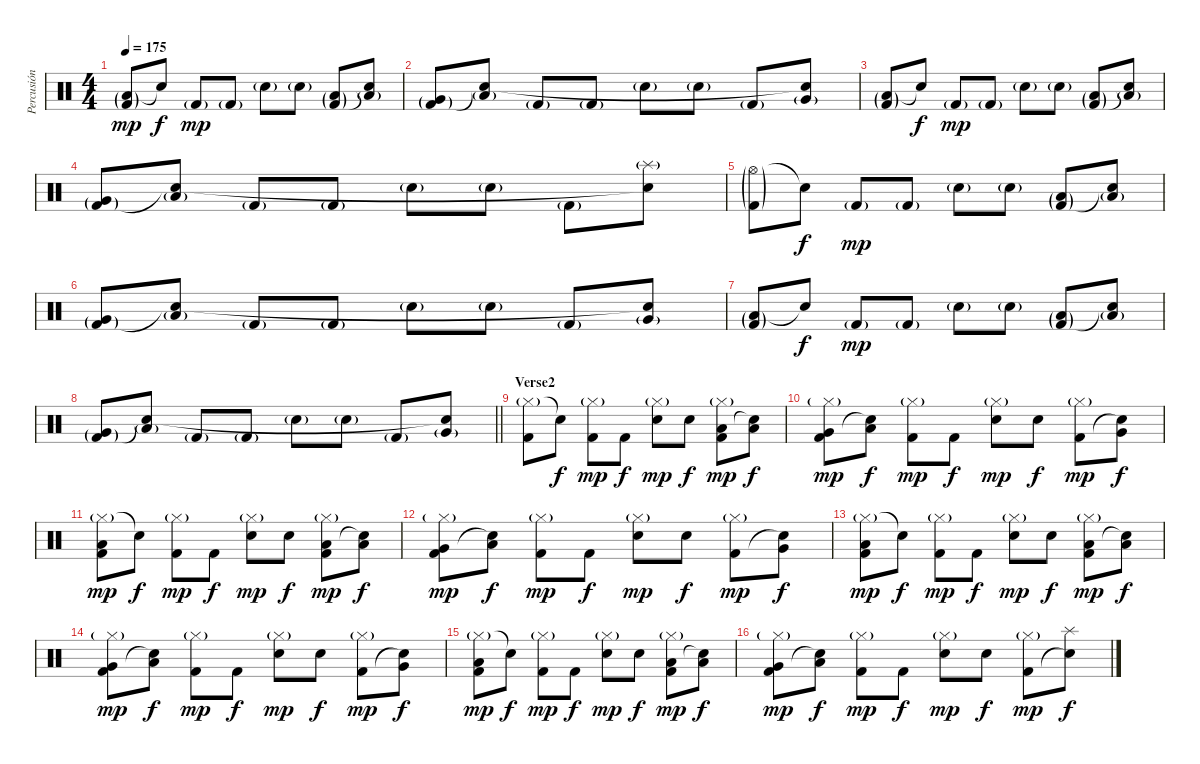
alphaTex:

\track ("Percusión" "Percusión") {instrument percussion}
\staff {score}
\articulation defaults
\ts (4 4)
\tempo 175
\clef neutral
\ks c
("Low Floor Tom (hit)"{g} "Kick (hit) 2"{g}).8{dy mp} "Snare (hit)"{t}.8{dy f} "Kick (hit) 2"{g}.8{dy mp} "Kick (hit) 2"{g}.8 "Electric Snare (hit)"{g}.8 "Electric Snare (hit)"{g}.8 ("Low Floor Tom (hit)"{g} "Kick (hit) 2"{g}).8 ("Low Floor Tom (hit)"{g} "Snare (hit)"{t}).8 |
("Very Low Tom (hit)"{g} "Kick (hit) 2"{g}).8 ("Low Floor Tom (hit)"{g} "Snare (hit)"{t}).8 "Kick (hit) 2"{g}.8 "Kick (hit) 2"{g}.8 "Electric Snare (hit)"{g}.8 "Electric Snare (hit)"{g}.8 "Kick (hit) 2"{g}.8 ("Very Low Tom (hit)"{g} "Snare (hit)"{t}).8 |
("Low Floor Tom (hit)"{g} "Kick (hit) 2"{g}).8 "Snare (hit)"{t}.8{dy f} "Kick (hit) 2"{g}.8{dy mp} "Kick (hit) 2"{g}.8 "Electric Snare (hit)"{g}.8 "Electric Snare (hit)"{g}.8 ("Low Floor Tom (hit)"{g} "Kick (hit) 2"{g}).8 ("Low Floor Tom (hit)"{g} "Snare (hit)"{t}).8 |
("Very Low Tom (hit)"{g} "Kick (hit) 2"{g}).8 ("Low Floor Tom (hit)"{g} "Snare (hit)"{t}).8 "Kick (hit) 2"{g}.8 "Kick (hit) 2"{g}.8 "Electric Snare (hit)"{g}.8 "Electric Snare (hit)"{g}.8 "Kick (hit) 2"{g}.8 ("Splash (hit)"{g} "Snare (hit)"{t}).8 |
("Hi-Hat (open)"{g} "Kick (hit) 2"{g}).8 "Snare (hit)"{t}.8{dy f} "Kick (hit) 2"{g}.8{dy mp} "Kick (hit) 2"{g}.8 "Electric Snare (hit)"{g}.8 "Electric Snare (hit)"{g}.8 ("Low Floor Tom (hit)"{g} "Kick (hit) 2"{g}).8 ("Low Floor Tom (hit)"{g} "Snare (hit)"{t}).8 |
("Very Low Tom (hit)"{g} "Kick (hit) 2"{g}).8 ("Low Floor Tom (hit)"{g} "Snare (hit)"{t}).8 "Kick (hit) 2"{g}.8 "Kick (hit) 2"{g}.8 "Electric Snare (hit)"{g}.8 "Electric Snare (hit)"{g}.8 "Kick (hit) 2"{g}.8 ("Very Low Tom (hit)"{g} "Snare (hit)"{t}).8 |
("Low Floor Tom (hit)"{g} "Kick (hit) 2"{g}).8 "Snare (hit)"{t}.8{dy f} "Kick (hit) 2"{g}.8{dy mp} "Kick (hit) 2"{g}.8 "Electric Snare (hit)"{g}.8 "Electric Snare (hit)"{g}.8 ("Low Floor Tom (hit)"{g} "Kick (hit) 2"{g}).8 ("Low Floor Tom (hit)"{g} "Snare (hit)"{t}).8 |
\barLineRight lightlight
("Very Low Tom (hit)"{g} "Kick (hit) 2"{g}).8 ("Low Floor Tom (hit)"{g} "Snare (hit)"{t}).8 "Kick (hit) 2"{g}.8 "Kick (hit) 2"{g}.8 "Electric Snare (hit)"{g}.8 "Electric Snare (hit)"{g}.8 "Kick (hit) 2"{g}.8 ("Very Low Tom (hit)"{g} "Snare (hit)"{t}).8 |
\section ("" "Verse2")
("Hi-Hat (closed)"{g} "Kick (hit) 2").8{volume 8} "Snare (hit)"{t}.8{dy f} ("Hi-Hat (closed)"{g} "Kick (hit) 2").8{dy mp} "Kick (hit) 2".8{dy f} ("Hi-Hat (closed)"{g} "Electric Snare (hit)").8{dy mp} "Electric Snare (hit)".8{dy f} ("Hi-Hat (closed)"{g} "Low Floor Tom (hit)" "Kick (hit) 2").8{dy mp} ("Low Floor Tom (hit)" "Snare (hit)"{t}).8{dy f} |
("Hi-Hat (closed)"{g} "Very Low Tom (hit)" "Kick (hit) 2").8{dy mp} ("Low Floor Tom (hit)" "Snare (hit)"{t}).8{dy f} ("Hi-Hat (closed)"{g} "Kick (hit) 2").8{dy mp} "Kick (hit) 2".8{dy f} ("Hi-Hat (closed)"{g} "Electric Snare (hit)").8{dy mp} "Electric Snare (hit)".8{dy f} ("Hi-Hat (closed)"{g} "Kick (hit) 2").8{dy mp} ("Very Low Tom (hit)" "Snare (hit)"{t}).8{dy f} |
("Hi-Hat (closed)"{g} "Low Floor Tom (hit)" "Kick (hit) 2").8{dy mp} "Snare (hit)"{t}.8{dy f} ("Hi-Hat (closed)"{g} "Kick (hit) 2").8{dy mp} "Kick (hit) 2".8{dy f} ("Hi-Hat (closed)"{g} "Electric Snare (hit)").8{dy mp} "Electric Snare (hit)".8{dy f} ("Hi-Hat (closed)"{g} "Low Floor Tom (hit)" "Kick (hit) 2").8{dy mp} ("Low Floor Tom (hit)" "Snare (hit)"{t}).8{dy f} |
("Hi-Hat (closed)"{g} "Very Low Tom (hit)" "Kick (hit) 2").8{dy mp} ("Low Floor Tom (hit)" "Snare (hit)"{t}).8{dy f} ("Hi-Hat (closed)"{g} "Kick (hit) 2").8{dy mp} "Kick (hit) 2".8{dy f} ("Hi-Hat (closed)"{g} "Electric Snare (hit)").8{dy mp} "Electric Snare (hit)".8{dy f} ("Hi-Hat (closed)"{g} "Kick (hit) 2").8{dy mp} ("Very Low Tom (hit)" "Snare (hit)"{t}).8{dy f} |
("Hi-Hat (closed)"{g} "Low Floor Tom (hit)" "Kick (hit) 2").8{dy mp} "Snare (hit)"{t}.8{dy f} ("Hi-Hat (closed)"{g} "Kick (hit) 2").8{dy mp} "Kick (hit) 2".8{dy f} ("Hi-Hat (closed)"{g} "Electric Snare (hit)").8{dy mp} "Electric Snare (hit)".8{dy f} ("Hi-Hat (closed)"{g} "Low Floor Tom (hit)" "Kick (hit) 2").8{dy mp} ("Low Floor Tom (hit)" "Snare (hit)"{t}).8{dy f} |
("Hi-Hat (closed)"{g} "Very Low Tom (hit)" "Kick (hit) 2").8{dy mp} ("Low Floor Tom (hit)" "Snare (hit)"{t}).8{dy f} ("Hi-Hat (closed)"{g} "Kick (hit) 2").8{dy mp} "Kick (hit) 2".8{dy f} ("Hi-Hat (closed)"{g} "Electric Snare (hit)").8{dy mp} "Electric Snare (hit)".8{dy f} ("Hi-Hat (closed)"{g} "Kick (hit) 2").8{dy mp} ("Very Low Tom (hit)" "Snare (hit)"{t}).8{dy f} |
("Hi-Hat (closed)"{g} "Low Floor Tom (hit)" "Kick (hit) 2").8{dy mp} "Snare (hit)"{t}.8{dy f} ("Hi-Hat (closed)"{g} "Kick (hit) 2").8{dy mp} "Kick (hit) 2".8{dy f} ("Hi-Hat (closed)"{g} "Electric Snare (hit)").8{dy mp} "Electric Snare (hit)".8{dy f} ("Hi-Hat (closed)"{g} "Low Floor Tom (hit)" "Kick (hit) 2").8{dy mp} ("Low Floor Tom (hit)" "Snare (hit)"{t}).8{dy f} |
("Hi-Hat (closed)"{g} "Very Low Tom (hit)" "Kick (hit) 2").8{dy mp} ("Low Floor Tom (hit)" "Snare (hit)"{t}).8{dy f} ("Hi-Hat (closed)"{g} "Kick (hit) 2").8{dy mp} "Kick (hit) 2".8{dy f} ("Hi-Hat (closed)"{g} "Electric Snare (hit)").8{dy mp} "Electric Snare (hit)".8{dy f} ("Hi-Hat (closed)"{g} "Kick (hit) 2").8{dy mp} ("Splash (hit)" "Snare (hit)"{t}).8{dy f}
